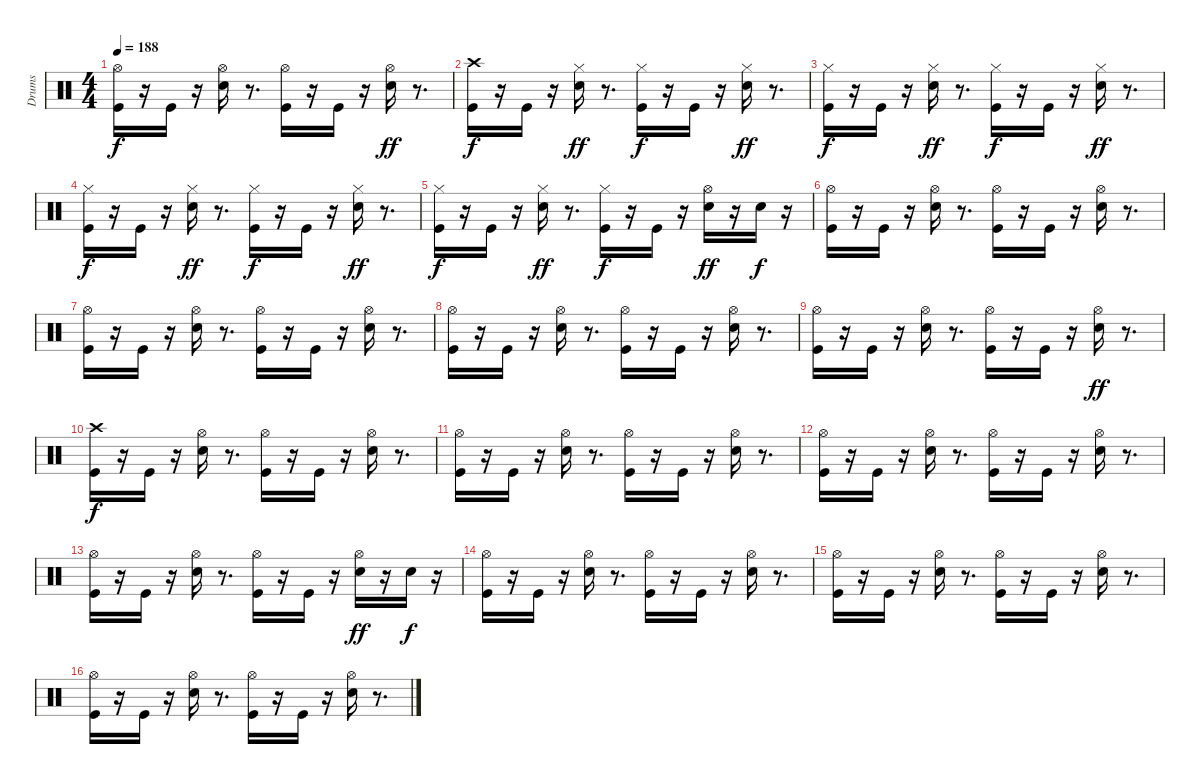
\track ("Drums" "Drums") {instrument percussion}
\staff {score}
\articulation defaults
\ts (4 4)
\tempo 188
\clef neutral
\ks c
("Hi-Hat (open)" "Kick (hit)").16{dy f} r.16 "Kick (hit)".16 r.16 ("Hi-Hat (open)" "Snare (hit) 2").16 r.8{d} ("Hi-Hat (open)" "Kick (hit)").16 r.16 "Kick (hit)".16 r.16 ("Snare (hit) 2" "Hi-Hat (open)").16{dy ff} r.8{d} |
("Crash high (hit)" "Kick (hit)").16{dy f} r.16 "Kick (hit)".16 r.16 ("Snare (hit) 2" "Hi-Hat (closed)").16{dy ff} r.8{d} ("Hi-Hat (closed)" "Kick (hit)").16{dy f} r.16 "Kick (hit)".16 r.16 ("Snare (hit) 2" "Hi-Hat (closed)").16{dy ff} r.8{d} |
("Hi-Hat (closed)" "Kick (hit)").16{dy f} r.16 "Kick (hit)".16 r.16 ("Snare (hit) 2" "Hi-Hat (closed)").16{dy ff} r.8{d} ("Hi-Hat (closed)" "Kick (hit)").16{dy f} r.16 "Kick (hit)".16 r.16 ("Snare (hit) 2" "Hi-Hat (closed)").16{dy ff} r.8{d} |
("Hi-Hat (closed)" "Kick (hit)").16{dy f} r.16 "Kick (hit)".16 r.16 ("Snare (hit) 2" "Hi-Hat (closed)").16{dy ff} r.8{d} ("Hi-Hat (closed)" "Kick (hit)").16{dy f} r.16 "Kick (hit)".16 r.16 ("Snare (hit) 2" "Hi-Hat (closed)").16{dy ff} r.8{d} |
("Hi-Hat (closed)" "Kick (hit)").16{dy f} r.16 "Kick (hit)".16 r.16 ("Snare (hit) 2" "Hi-Hat (closed)").16{dy ff} r.8{d} ("Hi-Hat (closed)" "Kick (hit)").16{dy f} r.16 "Kick (hit)".16 r.16 ("Snare (hit) 2" "Hi-Hat (open)").16{dy ff} r.16 "Snare (hit) 2".16{dy f} r.16 |
("Hi-Hat (open)" "Kick (hit)").16 r.16 "Kick (hit)".16 r.16 ("Hi-Hat (open)" "Snare (hit) 2").16 r.8{d} ("Hi-Hat (open)" "Kick (hit)").16 r.16 "Kick (hit)".16 r.16 ("Hi-Hat (open)" "Snare (hit) 2").16 r.8{d} |
("Hi-Hat (open)" "Kick (hit)").16 r.16 "Kick (hit)".16 r.16 ("Hi-Hat (open)" "Snare (hit) 2").16 r.8{d} ("Hi-Hat (open)" "Kick (hit)").16 r.16 "Kick (hit)".16 r.16 ("Hi-Hat (open)" "Snare (hit) 2").16 r.8{d} |
("Hi-Hat (open)" "Kick (hit)").16 r.16 "Kick (hit)".16 r.16 ("Hi-Hat (open)" "Snare (hit) 2").16 r.8{d} ("Hi-Hat (open)" "Kick (hit)").16 r.16 "Kick (hit)".16 r.16 ("Hi-Hat (open)" "Snare (hit) 2").16 r.8{d} |
("Hi-Hat (open)" "Kick (hit)").16 r.16 "Kick (hit)".16 r.16 ("Hi-Hat (open)" "Snare (hit) 2").16 r.8{d} ("Hi-Hat (open)" "Kick (hit)").16 r.16 "Kick (hit)".16 r.16 ("Snare (hit) 2" "Hi-Hat (open)").16{dy ff} r.8{d} |
("Crash high (hit)" "Kick (hit)").16{dy f} r.16 "Kick (hit)".16 r.16 ("Hi-Hat (open)" "Snare (hit) 2").16 r.8{d} ("Hi-Hat (open)" "Kick (hit)").16 r.16 "Kick (hit)".16 r.16 ("Hi-Hat (open)" "Snare (hit) 2").16 r.8{d} |
("Hi-Hat (open)" "Kick (hit)").16 r.16 "Kick (hit)".16 r.16 ("Hi-Hat (open)" "Snare (hit) 2").16 r.8{d} ("Hi-Hat (open)" "Kick (hit)").16 r.16 "Kick (hit)".16 r.16 ("Hi-Hat (open)" "Snare (hit) 2").16 r.8{d} |
("Hi-Hat (open)" "Kick (hit)").16 r.16 "Kick (hit)".16 r.16 ("Hi-Hat (open)" "Snare (hit) 2").16 r.8{d} ("Hi-Hat (open)" "Kick (hit)").16 r.16 "Kick (hit)".16 r.16 ("Hi-Hat (open)" "Snare (hit) 2").16 r.8{d} |
("Hi-Hat (open)" "Kick (hit)").16 r.16 "Kick (hit)".16 r.16 ("Hi-Hat (open)" "Snare (hit) 2").16 r.8{d} ("Hi-Hat (open)" "Kick (hit)").16 r.16 "Kick (hit)".16 r.16 ("Snare (hit) 2" "Hi-Hat (open)").16{dy ff} r.16 "Snare (hit) 2".16{dy f} r.16 |
("Hi-Hat (open)" "Kick (hit)").16 r.16 "Kick (hit)".16 r.16 ("Hi-Hat (open)" "Snare (hit) 2").16 r.8{d} ("Hi-Hat (open)" "Kick (hit)").16 r.16 "Kick (hit)".16 r.16 ("Hi-Hat (open)" "Snare (hit) 2").16 r.8{d} |
("Hi-Hat (open)" "Kick (hit)").16 r.16 "Kick (hit)".16 r.16 ("Hi-Hat (open)" "Snare (hit) 2").16 r.8{d} ("Hi-Hat (open)" "Kick (hit)").16 r.16 "Kick (hit)".16 r.16 ("Hi-Hat (open)" "Snare (hit) 2").16 r.8{d} |
("Hi-Hat (open)" "Kick (hit)").16 r.16 "Kick (hit)".16 r.16 ("Hi-Hat (open)" "Snare (hit) 2").16 r.8{d} ("Hi-Hat (open)" "Kick (hit)").16 r.16 "Kick (hit)".16 r.16 ("Hi-Hat (open)" "Snare (hit) 2").16 r.8{d}
